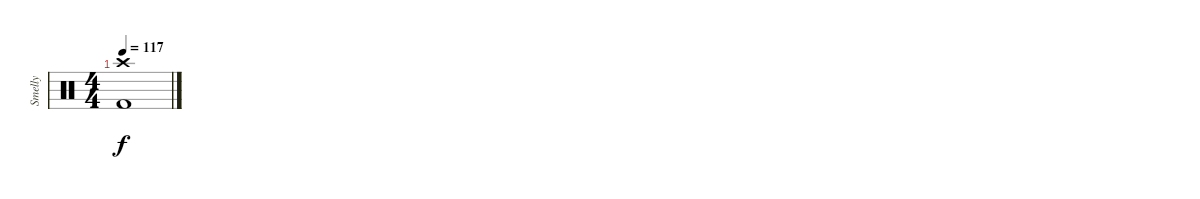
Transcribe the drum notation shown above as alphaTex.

\track ("Smelly" "Smelly") {instrument percussion}
\staff {score}
\articulation defaults
\ts (4 4)
\tempo 117
\clef neutral
\ks c
("Crash high (hit)" "Kick (hit) 2").1{dy f}
